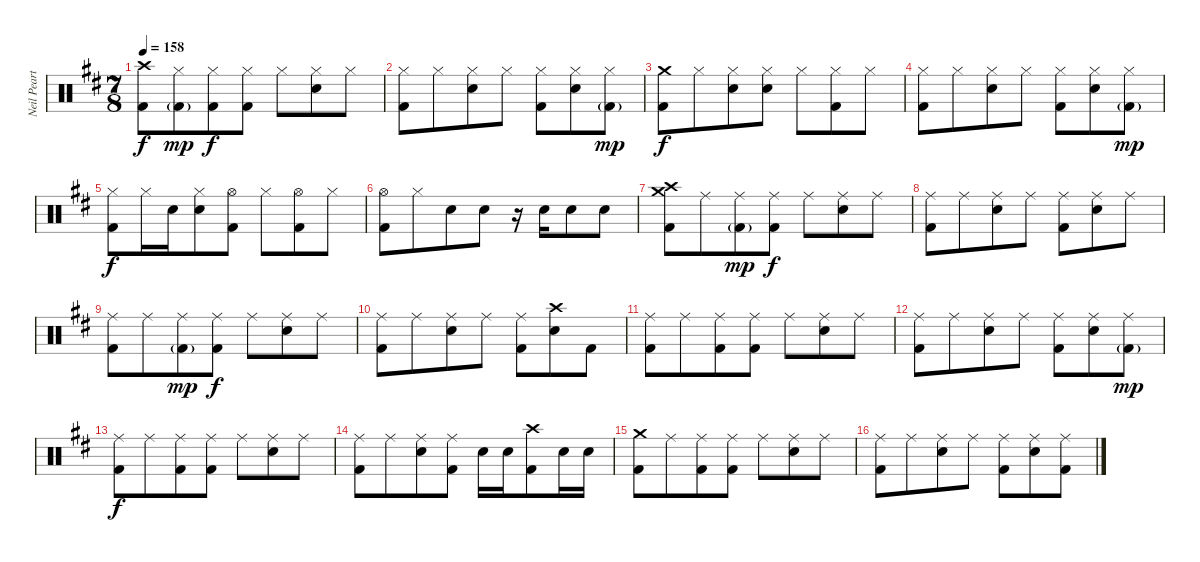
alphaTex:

\track ("Neil Peart (drums)" "Neil Peart") {instrument percussion}
\staff {score}
\articulation defaults
\ts (7 8)
\tempo 158
\clef neutral
\ks bminor
("Crash high (hit)" "Kick (hit) 2").8{dy f} ("Hi-Hat (closed)" "Kick (hit) 2"{g}).8{dy mp} ("Hi-Hat (closed)" "Kick (hit) 2").8{dy f} ("Hi-Hat (closed)" "Kick (hit) 2").8 "Hi-Hat (closed)".8 ("Hi-Hat (closed)" "Electric Snare (hit)").8 "Hi-Hat (closed)".8 |
("Hi-Hat (closed)" "Kick (hit) 2").8 "Hi-Hat (closed)".8 ("Hi-Hat (closed)" "Electric Snare (hit)").8 "Hi-Hat (closed)".8 ("Hi-Hat (closed)" "Kick (hit) 2").8 ("Hi-Hat (closed)" "Electric Snare (hit)").8 ("Hi-Hat (closed)" "Kick (hit) 2"{g}).8{dy mp} |
("Crash medium (hit)" "Kick (hit) 2").8{dy f} "Hi-Hat (closed)".8 ("Hi-Hat (closed)" "Electric Snare (hit)").8 ("Hi-Hat (closed)" "Electric Snare (hit)").8 "Hi-Hat (closed)".8 ("Hi-Hat (closed)" "Kick (hit) 2").8 "Hi-Hat (closed)".8 |
("Hi-Hat (closed)" "Kick (hit) 2").8 "Hi-Hat (closed)".8 ("Hi-Hat (closed)" "Electric Snare (hit)").8 "Hi-Hat (closed)".8 ("Hi-Hat (closed)" "Kick (hit) 2").8 ("Hi-Hat (closed)" "Electric Snare (hit)").8 ("Hi-Hat (closed)" "Kick (hit) 2"{g}).8{dy mp} |
("Hi-Hat (closed)" "Kick (hit) 2").8{dy f} "Hi-Hat (closed)".16 "Electric Snare (hit)".16 ("Hi-Hat (closed)" "Electric Snare (hit)").8 ("Hi-Hat (open)" "Kick (hit) 2").8 "Hi-Hat (closed)".8 ("Hi-Hat (open)" "Kick (hit) 2").8 "Hi-Hat (closed)".8 |
("Hi-Hat (open)" "Kick (hit) 2").8 "Hi-Hat (closed)".8 "Electric Snare (hit)".8 "Electric Snare (hit)".8 r.16 "Electric Snare (hit)".16 "Electric Snare (hit)".8 "Electric Snare (hit)".8 |
("Crash high (hit)" "Crash medium (hit)" "Kick (hit) 2").8 "Ride (middle)".8 ("Ride (middle)" "Kick (hit) 2"{g}).8{dy mp} ("Ride (middle)" "Kick (hit) 2").8{dy f} "Ride (middle)".8 ("Ride (middle)" "Electric Snare (hit)").8 "Ride (middle)".8 |
("Ride (middle)" "Kick (hit) 2").8 "Ride (middle)".8 ("Ride (middle)" "Electric Snare (hit)").8 "Ride (middle)".8 ("Ride (middle)" "Kick (hit) 2").8 ("Ride (middle)" "Electric Snare (hit)").8 "Ride (middle)".8 |
("Ride (middle)" "Kick (hit) 2").8 "Ride (middle)".8 ("Ride (middle)" "Kick (hit) 2"{g}).8{dy mp} ("Ride (middle)" "Kick (hit) 2").8{dy f} "Ride (middle)".8 ("Ride (middle)" "Electric Snare (hit)").8 "Ride (middle)".8 |
("Ride (middle)" "Kick (hit) 2").8 "Ride (middle)".8 ("Ride (middle)" "Electric Snare (hit)").8 "Ride (middle)".8 ("Ride (middle)" "Kick (hit) 2").8 ("Crash high (hit)" "Electric Snare (hit)").8 "Kick (hit) 2".8 |
("Ride (middle)" "Kick (hit) 2").8 "Ride (middle)".8 ("Ride (middle)" "Kick (hit) 2").8 ("Ride (middle)" "Kick (hit) 2").8 "Ride (middle)".8 ("Ride (middle)" "Electric Snare (hit)").8 "Ride (middle)".8 |
("Ride (middle)" "Kick (hit) 2").8 "Ride (middle)".8 ("Ride (middle)" "Electric Snare (hit)").8 "Ride (middle)".8 ("Ride (middle)" "Kick (hit) 2").8 ("Ride (middle)" "Electric Snare (hit)").8 ("Ride (middle)" "Kick (hit) 2"{g}).8{dy mp} |
("Ride (middle)" "Kick (hit) 2").8{dy f} "Ride (middle)".8 ("Ride (middle)" "Kick (hit) 2").8 ("Ride (middle)" "Kick (hit) 2").8 "Ride (middle)".8 ("Ride (middle)" "Electric Snare (hit)").8 "Ride (middle)".8 |
("Ride (middle)" "Kick (hit) 2").8 "Ride (middle)".8 ("Ride (middle)" "Electric Snare (hit)").8 ("Ride (middle)" "Kick (hit) 2").8 "Electric Snare (hit)".16 "Electric Snare (hit)".16 ("Crash high (hit)" "Kick (hit) 2").8 "Electric Snare (hit)".16 "Electric Snare (hit)".16 |
("Crash medium (hit)" "Kick (hit) 2").8 "Ride (middle)".8 ("Ride (middle)" "Kick (hit) 2").8 ("Ride (middle)" "Kick (hit) 2").8 "Ride (middle)".8 ("Ride (middle)" "Electric Snare (hit)").8 "Ride (middle)".8 |
("Ride (middle)" "Kick (hit) 2").8 "Ride (middle)".8 ("Ride (middle)" "Electric Snare (hit)").8 "Ride (middle)".8 ("Ride (middle)" "Kick (hit) 2").8 ("Ride (middle)" "Electric Snare (hit)").8 ("Ride (middle)" "Kick (hit) 2").8
